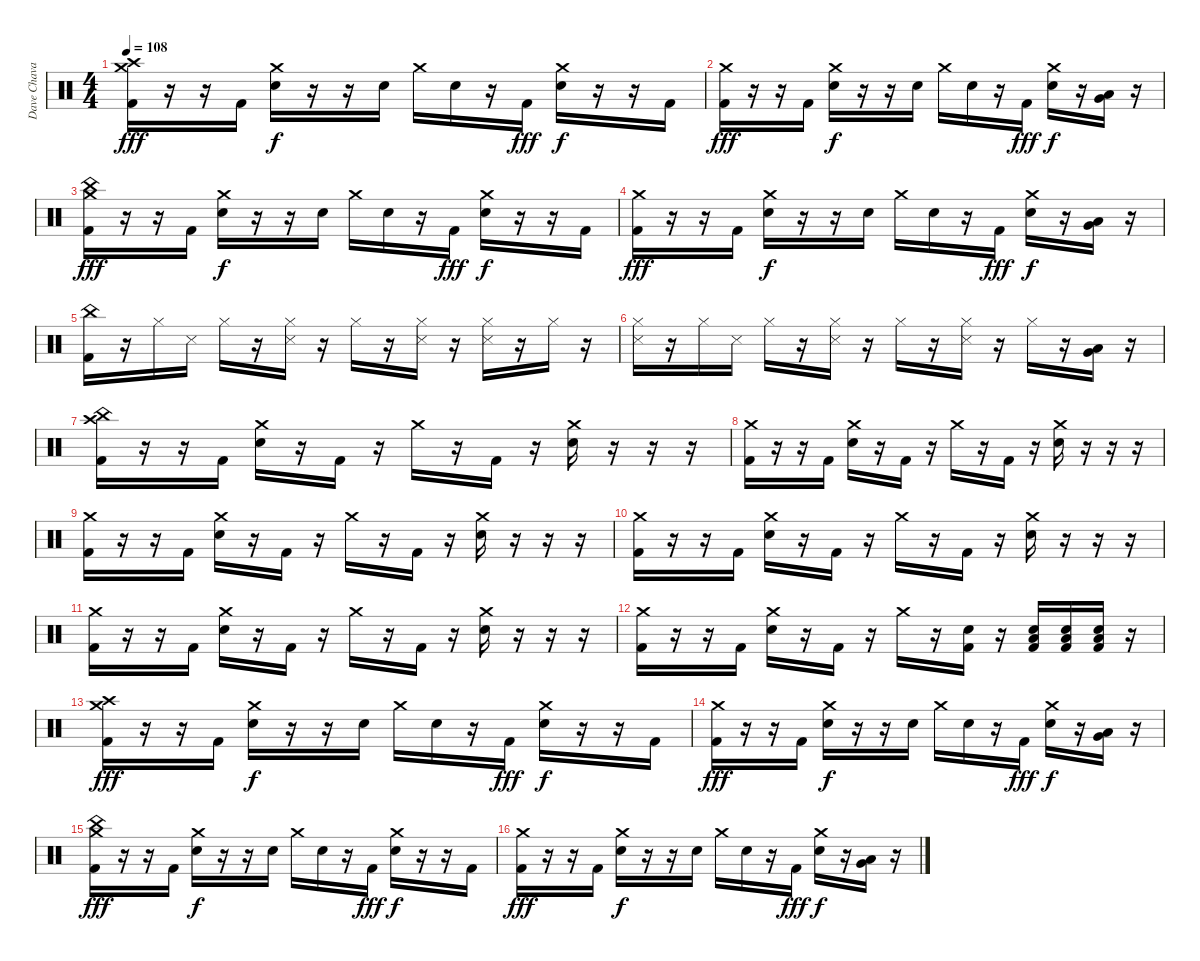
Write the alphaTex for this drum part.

\track ("Dave Chavarri [Drums]" "Dave Chava") {instrument percussion}
\staff {score}
\articulation defaults
\ts (4 4)
\tempo 108
\clef neutral
\ks c
("Crash medium (hit)" "Crash high (hit)" "Kick (hit) 2").16{dy fff} r.16 r.16 "Kick (hit) 2".16 ("Crash medium (hit)" "Electric Snare (hit)").16{dy f} r.16 r.16 "Electric Snare (hit)".16 "Crash medium (hit)".16 "Electric Snare (hit)".16 r.16 "Kick (hit) 2".16{dy fff} ("Crash medium (hit)" "Electric Snare (hit)").16{dy f} r.16 r.16 "Kick (hit) 2".16 |
("Crash medium (hit)" "Kick (hit) 2").16{dy fff} r.16 r.16 "Kick (hit) 2".16 ("Crash medium (hit)" "Electric Snare (hit)").16{dy f} r.16 r.16 "Electric Snare (hit)".16 "Crash medium (hit)".16 "Electric Snare (hit)".16 r.16 "Kick (hit) 2".16{dy fff} ("Crash medium (hit)" "Electric Snare (hit)").16{dy f} r.16 ("Low Tom (hit)" "Very Low Tom (hit)").16 r.16 |
("Crash medium (hit)" "China (hit)" "Kick (hit) 2").16{dy fff} r.16 r.16 "Kick (hit) 2".16 ("Crash medium (hit)" "Electric Snare (hit)").16{dy f} r.16 r.16 "Electric Snare (hit)".16 "Crash medium (hit)".16 "Electric Snare (hit)".16 r.16 "Kick (hit) 2".16{dy fff} ("Crash medium (hit)" "Electric Snare (hit)").16{dy f} r.16 r.16 "Kick (hit) 2".16 |
("Crash medium (hit)" "Kick (hit) 2").16{dy fff} r.16 r.16 "Kick (hit) 2".16 ("Crash medium (hit)" "Electric Snare (hit)").16{dy f} r.16 r.16 "Electric Snare (hit)".16 "Crash medium (hit)".16 "Electric Snare (hit)".16 r.16 "Kick (hit) 2".16{dy fff} ("Crash medium (hit)" "Electric Snare (hit)").16{dy f} r.16 ("Low Tom (hit)" "Very Low Tom (hit)").16 r.16 |
("China (hit)" "Kick (hit) 2").16 r.16 "Hi-Hat (closed)".16 "Snare (side stick) 3".16 "Hi-Hat (closed)".16 r.16 ("Hi-Hat (closed)" "Snare (side stick) 3").16 r.16 "Hi-Hat (closed)".16 r.16 ("Hi-Hat (closed)" "Snare (side stick) 3").16 r.16 ("Hi-Hat (closed)" "Snare (side stick) 3").16 r.16 "Hi-Hat (closed)".16 r.16 |
("Hi-Hat (closed)" "Snare (side stick) 3").16 r.16 "Hi-Hat (closed)".16 "Snare (side stick) 3".16 "Hi-Hat (closed)".16 r.16 ("Hi-Hat (closed)" "Snare (side stick) 3").16 r.16 "Hi-Hat (closed)".16 r.16 ("Hi-Hat (closed)" "Snare (side stick) 3").16 r.16 "Hi-Hat (closed)".16 r.16 ("Low Tom (hit)" "Very Low Tom (hit)").16 r.16 |
("Crash high (hit)" "China (hit)" "Kick (hit) 2").16 r.16 r.16 "Kick (hit) 2".16 ("Crash medium (hit)" "Electric Snare (hit)").16 r.16 "Kick (hit) 2".16 r.16 "Crash medium (hit)".16 r.16 "Kick (hit) 2".16 r.16 ("Crash medium (hit)" "Electric Snare (hit)").16 r.16 r.16 r.16 |
("Crash medium (hit)" "Kick (hit) 2").16 r.16 r.16 "Kick (hit) 2".16 ("Crash medium (hit)" "Electric Snare (hit)").16 r.16 "Kick (hit) 2".16 r.16 "Crash medium (hit)".16 r.16 "Kick (hit) 2".16 r.16 ("Crash medium (hit)" "Electric Snare (hit)").16 r.16 r.16 r.16 |
("Crash medium (hit)" "Kick (hit) 2").16 r.16 r.16 "Kick (hit) 2".16 ("Crash medium (hit)" "Electric Snare (hit)").16 r.16 "Kick (hit) 2".16 r.16 "Crash medium (hit)".16 r.16 "Kick (hit) 2".16 r.16 ("Crash medium (hit)" "Electric Snare (hit)").16 r.16 r.16 r.16 |
("Crash medium (hit)" "Kick (hit) 2").16 r.16 r.16 "Kick (hit) 2".16 ("Crash medium (hit)" "Electric Snare (hit)").16 r.16 "Kick (hit) 2".16 r.16 "Crash medium (hit)".16 r.16 "Kick (hit) 2".16 r.16 ("Crash medium (hit)" "Electric Snare (hit)").16 r.16 r.16 r.16 |
("Crash medium (hit)" "Kick (hit) 2").16 r.16 r.16 "Kick (hit) 2".16 ("Crash medium (hit)" "Electric Snare (hit)").16 r.16 "Kick (hit) 2".16 r.16 "Crash medium (hit)".16 r.16 "Kick (hit) 2".16 r.16 ("Crash medium (hit)" "Electric Snare (hit)").16 r.16 r.16 r.16 |
("Crash medium (hit)" "Kick (hit) 2").16 r.16 r.16 "Kick (hit) 2".16 ("Crash medium (hit)" "Electric Snare (hit)").16 r.16 "Kick (hit) 2".16 r.16 "Crash medium (hit)".16 r.16 ("Electric Snare (hit)" "Kick (hit) 2").16 r.16 ("Low Floor Tom (hit)" "Electric Snare (hit)" "Kick (hit) 2").16 ("Low Floor Tom (hit)" "Electric Snare (hit)" "Kick (hit) 2").16 ("Low Floor Tom (hit)" "Electric Snare (hit)" "Kick (hit) 2").16 r.16 |
("Crash medium (hit)" "Crash high (hit)" "Kick (hit) 2").16{dy fff} r.16 r.16 "Kick (hit) 2".16 ("Crash medium (hit)" "Electric Snare (hit)").16{dy f} r.16 r.16 "Electric Snare (hit)".16 "Crash medium (hit)".16 "Electric Snare (hit)".16 r.16 "Kick (hit) 2".16{dy fff} ("Crash medium (hit)" "Electric Snare (hit)").16{dy f} r.16 r.16 "Kick (hit) 2".16 |
("Crash medium (hit)" "Kick (hit) 2").16{dy fff} r.16 r.16 "Kick (hit) 2".16 ("Crash medium (hit)" "Electric Snare (hit)").16{dy f} r.16 r.16 "Electric Snare (hit)".16 "Crash medium (hit)".16 "Electric Snare (hit)".16 r.16 "Kick (hit) 2".16{dy fff} ("Crash medium (hit)" "Electric Snare (hit)").16{dy f} r.16 ("Low Tom (hit)" "Very Low Tom (hit)").16 r.16 |
("Crash medium (hit)" "China (hit)" "Kick (hit) 2").16{dy fff} r.16 r.16 "Kick (hit) 2".16 ("Crash medium (hit)" "Electric Snare (hit)").16{dy f} r.16 r.16 "Electric Snare (hit)".16 "Crash medium (hit)".16 "Electric Snare (hit)".16 r.16 "Kick (hit) 2".16{dy fff} ("Crash medium (hit)" "Electric Snare (hit)").16{dy f} r.16 r.16 "Kick (hit) 2".16 |
("Crash medium (hit)" "Kick (hit) 2").16{dy fff} r.16 r.16 "Kick (hit) 2".16 ("Crash medium (hit)" "Electric Snare (hit)").16{dy f} r.16 r.16 "Electric Snare (hit)".16 "Crash medium (hit)".16 "Electric Snare (hit)".16 r.16 "Kick (hit) 2".16{dy fff} ("Crash medium (hit)" "Electric Snare (hit)").16{dy f} r.16 ("Low Tom (hit)" "Very Low Tom (hit)").16 r.16
